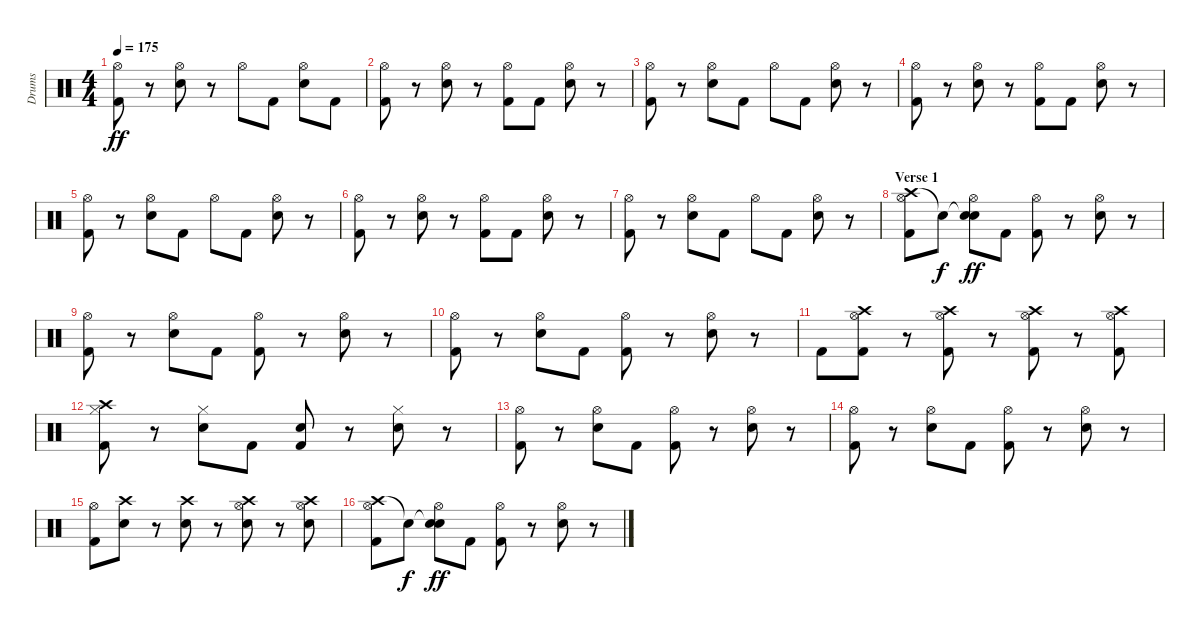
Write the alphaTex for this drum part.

\track ("Drums" "Drums") {instrument percussion}
\staff {score}
\articulation defaults
\ts (4 4)
\tempo 175
\clef neutral
\ks c
("Hi-Hat (open)" "Kick (hit) 2").8{dy ff} r.8 ("Hi-Hat (open)" "Electric Snare (hit)").8 r.8 "Hi-Hat (open)".8 "Kick (hit) 2".8 ("Hi-Hat (open)" "Electric Snare (hit)").8 "Kick (hit) 2".8 |
("Hi-Hat (open)" "Kick (hit) 2").8 r.8 ("Hi-Hat (open)" "Electric Snare (hit)").8 r.8 ("Hi-Hat (open)" "Kick (hit) 2").8 "Kick (hit) 2".8 ("Hi-Hat (open)" "Electric Snare (hit)").8 r.8 |
("Hi-Hat (open)" "Kick (hit) 2").8 r.8 ("Hi-Hat (open)" "Electric Snare (hit)").8 "Kick (hit) 2".8 "Hi-Hat (open)".8 "Kick (hit) 2".8 ("Hi-Hat (open)" "Electric Snare (hit)").8 r.8 |
("Hi-Hat (open)" "Kick (hit) 2").8 r.8 ("Hi-Hat (open)" "Electric Snare (hit)").8 r.8 ("Hi-Hat (open)" "Kick (hit) 2").8 "Kick (hit) 2".8 ("Hi-Hat (open)" "Electric Snare (hit)").8 r.8 |
("Hi-Hat (open)" "Kick (hit) 2").8 r.8 ("Hi-Hat (open)" "Electric Snare (hit)").8 "Kick (hit) 2".8 "Hi-Hat (open)".8 "Kick (hit) 2".8 ("Hi-Hat (open)" "Electric Snare (hit)").8 r.8 |
("Hi-Hat (open)" "Kick (hit) 2").8 r.8 ("Hi-Hat (open)" "Electric Snare (hit)").8 r.8 ("Hi-Hat (open)" "Kick (hit) 2").8 "Kick (hit) 2".8 ("Hi-Hat (open)" "Electric Snare (hit)").8 r.8 |
("Hi-Hat (open)" "Kick (hit) 2").8 r.8 ("Hi-Hat (open)" "Electric Snare (hit)").8 "Kick (hit) 2".8 "Hi-Hat (open)".8 "Kick (hit) 2".8 ("Hi-Hat (open)" "Electric Snare (hit)").8 r.8 |
\section ("" "Verse 1")
("Crash high (hit)" "Hi-Hat (open)" "Kick (hit) 2").8 "Snare (hit)"{t}.8{dy f} ("Snare (hit)"{t} "Hi-Hat (open)" "Electric Snare (hit)").8{dy ff} "Kick (hit) 2".8 ("Hi-Hat (open)" "Kick (hit) 2").8 r.8 ("Hi-Hat (open)" "Electric Snare (hit)").8 r.8 |
("Hi-Hat (open)" "Kick (hit) 2").8 r.8 ("Hi-Hat (open)" "Electric Snare (hit)").8 "Kick (hit) 2".8 ("Hi-Hat (open)" "Kick (hit) 2").8 r.8 ("Hi-Hat (open)" "Electric Snare (hit)").8 r.8 |
("Hi-Hat (open)" "Kick (hit) 2").8 r.8 ("Hi-Hat (open)" "Electric Snare (hit)").8 "Kick (hit) 2".8 ("Hi-Hat (open)" "Kick (hit) 2").8 r.8 ("Hi-Hat (open)" "Electric Snare (hit)").8 r.8 |
"Kick (hit) 2".8 ("Crash high (hit)" "Hi-Hat (open)" "Kick (hit) 2").8 r.8 ("Crash high (hit)" "Hi-Hat (open)" "Kick (hit) 2").8 r.8 ("Crash high (hit)" "Hi-Hat (open)" "Kick (hit) 2").8 r.8 ("Crash high (hit)" "Hi-Hat (open)" "Kick (hit) 2").8 |
("Crash high (hit)" "Hi-Hat (closed)" "Kick (hit) 2").8 r.8 ("Hi-Hat (closed)" "Electric Snare (hit)").8 "Kick (hit) 2".8 ("Electric Snare (hit)" "Kick (hit) 2").8 r.8 ("Hi-Hat (closed)" "Electric Snare (hit)").8 r.8 |
("Hi-Hat (open)" "Kick (hit) 2").8 r.8 ("Hi-Hat (open)" "Electric Snare (hit)").8 "Kick (hit) 2".8 ("Hi-Hat (open)" "Kick (hit) 2").8 r.8 ("Hi-Hat (open)" "Electric Snare (hit)").8 r.8 |
("Hi-Hat (open)" "Kick (hit) 2").8 r.8 ("Hi-Hat (open)" "Electric Snare (hit)").8 "Kick (hit) 2".8 ("Hi-Hat (open)" "Kick (hit) 2").8 r.8 ("Hi-Hat (open)" "Electric Snare (hit)").8 r.8 |
("Hi-Hat (open)" "Kick (hit) 2").8 ("Crash high (hit)" "Electric Snare (hit)").8 r.8 ("Crash high (hit)" "Electric Snare (hit)").8 r.8 ("Crash high (hit)" "Hi-Hat (open)" "Electric Snare (hit)").8 r.8 ("Crash high (hit)" "Hi-Hat (open)" "Electric Snare (hit)").8 |
("Crash high (hit)" "Hi-Hat (open)" "Kick (hit) 2").8 "Snare (hit)"{t}.8{dy f} ("Snare (hit)"{t} "Hi-Hat (open)" "Electric Snare (hit)").8{dy ff} "Kick (hit) 2".8 ("Hi-Hat (open)" "Kick (hit) 2").8 r.8 ("Hi-Hat (open)" "Electric Snare (hit)").8 r.8
